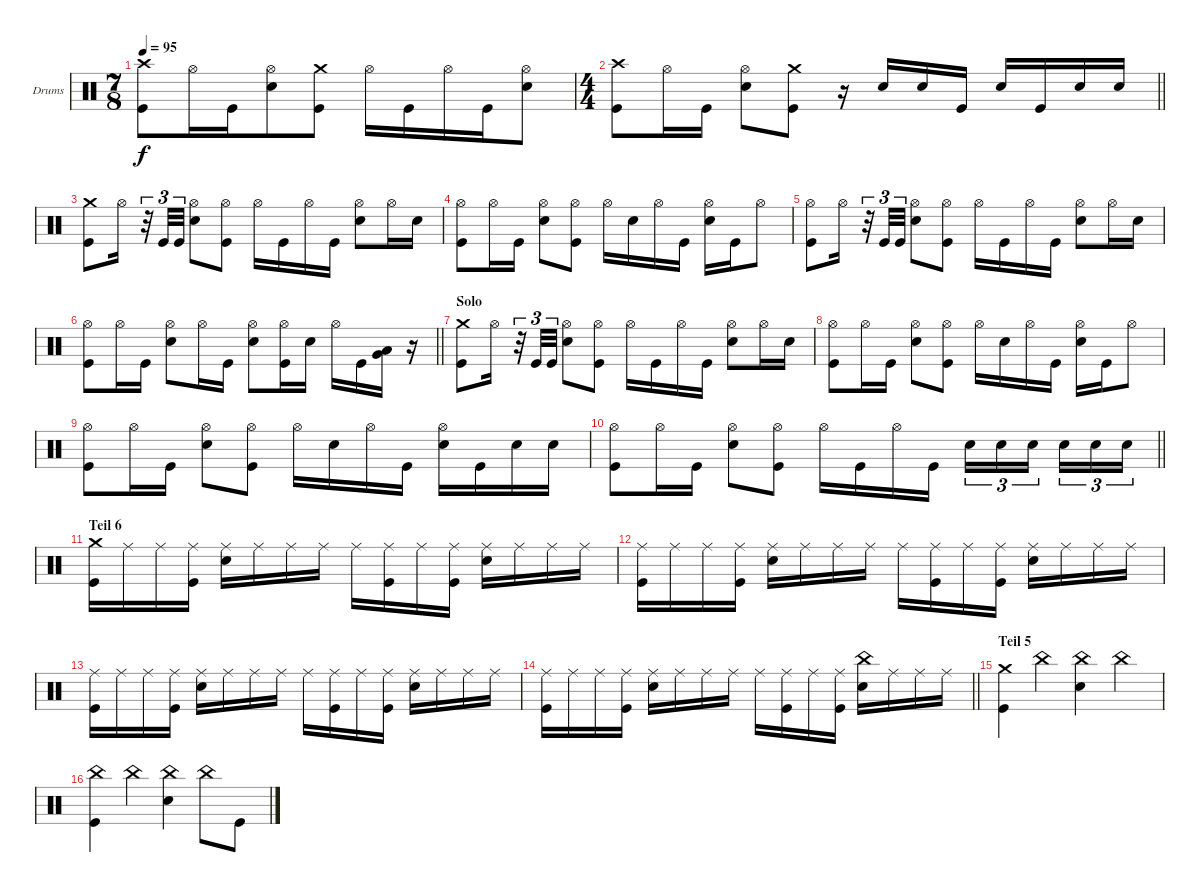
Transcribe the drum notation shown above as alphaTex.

\bracketExtendMode groupsimilarinstruments
\firstSystemTrackNameOrientation horizontal
\otherSystemsTrackNameOrientation horizontal
\track ("Drumkit" "Drums") {instrument percussion}
\staff {score}
\articulation defaults
\ts (7 8)
\tempo 95
\clef neutral
\ks c
("Crash high (hit)" "Kick (hit)").8{dy f} "Hi-Hat (open)".16 "Kick (hit)".16 ("Hi-Hat (open)" "Snare (hit) 2").8 ("Crash medium (hit)" "Kick (hit)").8 "Hi-Hat (open)".16 "Kick (hit)".16 "Hi-Hat (open)".16 "Kick (hit)".16 ("Hi-Hat (open)" "Snare (hit) 2").8 |
\ts (4 4)
\barLineRight lightlight
("Crash high (hit)" "Kick (hit)").8 "Hi-Hat (open)".16 "Kick (hit)".16 ("Hi-Hat (open)" "Snare (hit) 2").8 ("Crash medium (hit)" "Kick (hit)").8 r.16 "Snare (hit) 2".16 "Snare (hit) 2".16 "Kick (hit)".16 "Snare (hit) 2".16 "Kick (hit)".16 "Snare (hit) 2".16 "Snare (hit) 2".16 |
("Crash medium (hit)" "Kick (hit)").8 "Hi-Hat (open)".16 r.32{tu (3 2)} "Kick (hit)".32{tu (3 2)} "Kick (hit)".32{tu (3 2)} ("Hi-Hat (open)" "Snare (hit) 2").8 ("Hi-Hat (open)" "Kick (hit)").8 "Hi-Hat (open)".16 "Kick (hit)".16 "Hi-Hat (open)".16 "Kick (hit)".16 ("Hi-Hat (open)" "Snare (hit) 2").8 "Hi-Hat (open)".16 "Snare (hit) 2".16 |
("Hi-Hat (open)" "Kick (hit)").8 "Hi-Hat (open)".16 "Kick (hit)".16 ("Hi-Hat (open)" "Snare (hit) 2").8 ("Hi-Hat (open)" "Kick (hit)").8 "Hi-Hat (open)".16 "Snare (hit) 2".16 "Hi-Hat (open)".16 "Kick (hit)".16 ("Hi-Hat (open)" "Snare (hit) 2").16 "Kick (hit)".16 "Hi-Hat (open)".8 |
("Hi-Hat (open)" "Kick (hit)").8 "Hi-Hat (open)".16 r.32{tu (3 2)} "Kick (hit)".32{tu (3 2)} "Kick (hit)".32{tu (3 2)} ("Hi-Hat (open)" "Snare (hit) 2").8 ("Hi-Hat (open)" "Kick (hit)").8 "Hi-Hat (open)".16 "Kick (hit)".16 "Hi-Hat (open)".16 "Kick (hit)".16 ("Hi-Hat (open)" "Snare (hit) 2").8 "Hi-Hat (open)".16 "Snare (hit) 2".16 |
\barLineRight lightlight
("Hi-Hat (open)" "Kick (hit)").8 "Hi-Hat (open)".16 "Kick (hit)".16 ("Hi-Hat (open)" "Snare (hit) 2").8 "Hi-Hat (open)".16 "Kick (hit)".16 ("Hi-Hat (open)" "Snare (hit) 2").8 ("Hi-Hat (open)" "Kick (hit)").16 "Snare (hit) 2".16 "Hi-Hat (open)".16 "Kick (hit)".16 ("Low Tom (hit)" "Very Low Tom (hit)").16 r.16 |
\section ("" "Solo")
("Crash medium (hit)" "Kick (hit)").8 "Hi-Hat (open)".16 r.32{tu (3 2)} "Kick (hit)".32{tu (3 2)} "Kick (hit)".32{tu (3 2)} ("Hi-Hat (open)" "Snare (hit) 2").8 ("Hi-Hat (open)" "Kick (hit)").8 "Hi-Hat (open)".16 "Kick (hit)".16 "Hi-Hat (open)".16 "Kick (hit)".16 ("Hi-Hat (open)" "Snare (hit) 2").8 "Hi-Hat (open)".16 "Snare (hit) 2".16 |
("Hi-Hat (open)" "Kick (hit)").8 "Hi-Hat (open)".16 "Kick (hit)".16 ("Hi-Hat (open)" "Snare (hit) 2").8 ("Hi-Hat (open)" "Kick (hit)").8 "Hi-Hat (open)".16 "Snare (hit) 2".16 "Hi-Hat (open)".16 "Kick (hit)".16 ("Hi-Hat (open)" "Snare (hit) 2").16 "Kick (hit)".16 "Hi-Hat (open)".8 |
("Hi-Hat (open)" "Kick (hit)").8 "Hi-Hat (open)".16 "Kick (hit)".16 ("Hi-Hat (open)" "Snare (hit) 2").8 ("Hi-Hat (open)" "Kick (hit)").8 "Hi-Hat (open)".16 "Snare (hit) 2".16 "Hi-Hat (open)".16 "Kick (hit)".16 ("Hi-Hat (open)" "Snare (hit) 2").16 "Kick (hit)".16 "Snare (hit) 2".16 "Snare (hit) 2".16 |
\barLineRight lightlight
("Hi-Hat (open)" "Kick (hit)").8 "Hi-Hat (open)".16 "Kick (hit)".16 ("Hi-Hat (open)" "Snare (hit) 2").8 ("Hi-Hat (open)" "Kick (hit)").8 "Hi-Hat (open)".16 "Kick (hit)".16 "Hi-Hat (open)".16 "Kick (hit)".16 "Snare (hit) 2".16{tu (3 2)} "Snare (hit) 2".16{tu (3 2)} "Snare (hit) 2".16{tu (3 2)} "Snare (hit) 2".16{tu (3 2)} "Snare (hit) 2".16{tu (3 2)} "Snare (hit) 2".16{tu (3 2)} |
\section ("" "Teil 6")
("Crash medium (hit)" "Kick (hit)").16 "Ride (middle)".16 "Ride (middle)".16 ("Ride (middle)" "Kick (hit)").16 ("Ride (middle)" "Snare (hit) 2").16 "Ride (middle)".16 "Ride (middle)".16 "Ride (middle)".16 "Ride (middle)".16 ("Ride (middle)" "Kick (hit)").16 "Ride (middle)".16 ("Ride (middle)" "Kick (hit)").16 ("Ride (middle)" "Snare (hit) 2").16 "Ride (middle)".16 "Ride (middle)".16 "Ride (middle)".16 |
("Ride (middle)" "Kick (hit)").16 "Ride (middle)".16 "Ride (middle)".16 ("Ride (middle)" "Kick (hit)").16 ("Ride (middle)" "Snare (hit) 2").16 "Ride (middle)".16 "Ride (middle)".16 "Ride (middle)".16 "Ride (middle)".16 ("Ride (middle)" "Kick (hit)").16 "Ride (middle)".16 ("Ride (middle)" "Kick (hit)").16 ("Ride (middle)" "Snare (hit) 2").16 "Ride (middle)".16 "Ride (middle)".16 "Ride (middle)".16 |
("Ride (middle)" "Kick (hit)").16 "Ride (middle)".16 "Ride (middle)".16 ("Ride (middle)" "Kick (hit)").16 ("Ride (middle)" "Snare (hit) 2").16 "Ride (middle)".16 "Ride (middle)".16 "Ride (middle)".16 "Ride (middle)".16 ("Ride (middle)" "Kick (hit)").16 "Ride (middle)".16 ("Ride (middle)" "Kick (hit)").16 ("Ride (middle)" "Snare (hit) 2").16 "Ride (middle)".16 "Ride (middle)".16 "Ride (middle)".16 |
\barLineRight lightlight
("Ride (middle)" "Kick (hit)").16 "Ride (middle)".16 "Ride (middle)".16 ("Ride (middle)" "Kick (hit)").16 ("Ride (middle)" "Snare (hit) 2").16 "Ride (middle)".16 "Ride (middle)".16 "Ride (middle)".16 "Ride (middle)".16 ("Ride (middle)" "Kick (hit)").16 "Ride (middle)".16 ("Ride (middle)" "Kick (hit)").16 ("China (hit)" "Snare (hit) 2").16 "Ride (middle)".16 "Ride (middle)".16 "Ride (middle)".16 |
\section ("" "Teil 5")
("Crash medium (hit)" "Kick (hit)").4 "China (hit)".4 ("China (hit)" "Snare (hit) 2").4 "China (hit)".4 |
("China (hit)" "Kick (hit)").4 "China (hit)".4 ("China (hit)" "Snare (hit) 2").4 "China (hit)".8 "Kick (hit)".8
